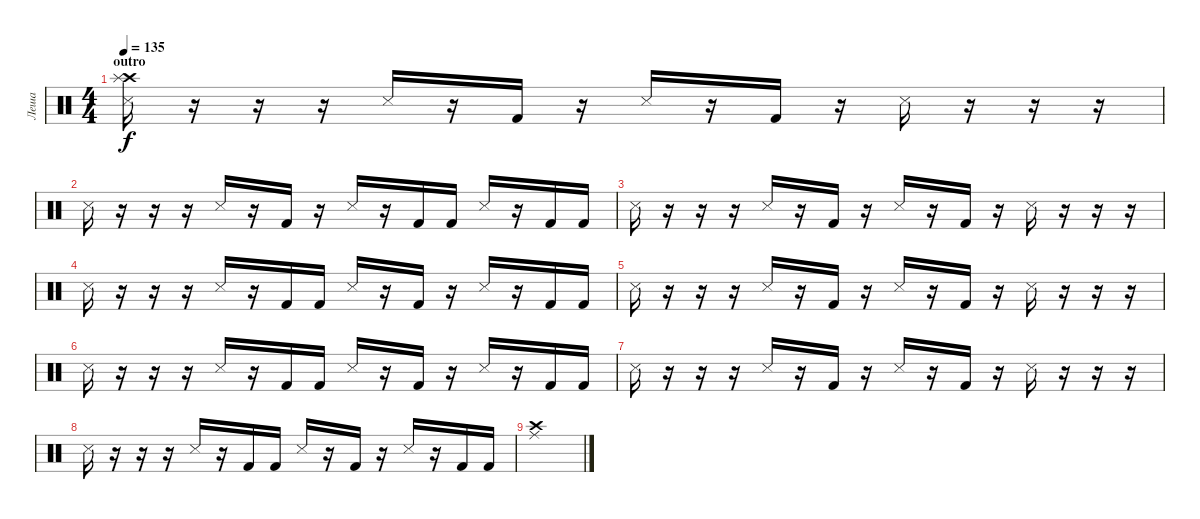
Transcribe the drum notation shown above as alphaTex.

\track ("Леша" "Леша") {instrument percussion}
\staff {score}
\articulation defaults
\ts (4 4)
\section ("" "outro")
\tempo 135
\clef neutral
\ks c
("Crash high (hit)" "Splash (hit)" "Snare (side stick) 3").16{dy f} r.16 r.16 r.16 "Snare (side stick) 3".16 r.16 "Kick (hit) 2".16 r.16 "Snare (side stick) 3".16 r.16 "Kick (hit) 2".16 r.16 "Snare (side stick) 3".16 r.16 r.16 r.16 |
"Snare (side stick) 3".16 r.16 r.16 r.16 "Snare (side stick) 3".16 r.16 "Kick (hit) 2".16 r.16 "Snare (side stick) 3".16 r.16 "Kick (hit) 2".16 "Kick (hit) 2".16 "Snare (side stick) 3".16 r.16 "Kick (hit) 2".16 "Kick (hit) 2".16 |
"Snare (side stick) 3".16 r.16 r.16 r.16 "Snare (side stick) 3".16 r.16 "Kick (hit) 2".16 r.16 "Snare (side stick) 3".16 r.16 "Kick (hit) 2".16 r.16 "Snare (side stick) 3".16 r.16 r.16 r.16 |
"Snare (side stick) 3".16 r.16 r.16 r.16 "Snare (side stick) 3".16 r.16 "Kick (hit) 2".16 "Kick (hit) 2".16 "Snare (side stick) 3".16 r.16 "Kick (hit) 2".16 r.16 "Snare (side stick) 3".16 r.16 "Kick (hit) 2".16 "Kick (hit) 2".16 |
"Snare (side stick) 3".16 r.16 r.16 r.16 "Snare (side stick) 3".16 r.16 "Kick (hit) 2".16 r.16 "Snare (side stick) 3".16 r.16 "Kick (hit) 2".16 r.16 "Snare (side stick) 3".16 r.16 r.16 r.16 |
"Snare (side stick) 3".16 r.16 r.16 r.16 "Snare (side stick) 3".16 r.16 "Kick (hit) 2".16 "Kick (hit) 2".16 "Snare (side stick) 3".16 r.16 "Kick (hit) 2".16 r.16 "Snare (side stick) 3".16 r.16 "Kick (hit) 2".16 "Kick (hit) 2".16 |
"Snare (side stick) 3".16 r.16 r.16 r.16 "Snare (side stick) 3".16 r.16 "Kick (hit) 2".16 r.16 "Snare (side stick) 3".16 r.16 "Kick (hit) 2".16 r.16 "Snare (side stick) 3".16 r.16 r.16 r.16 |
"Snare (side stick) 3".16 r.16 r.16 r.16 "Snare (side stick) 3".16 r.16 "Kick (hit) 2".16 "Kick (hit) 2".16 "Snare (side stick) 3".16 r.16 "Kick (hit) 2".16 r.16 "Snare (side stick) 3".16 r.16 "Kick (hit) 2".16 "Kick (hit) 2".16 |
("Ride (middle)" "Crash high (hit)").1
